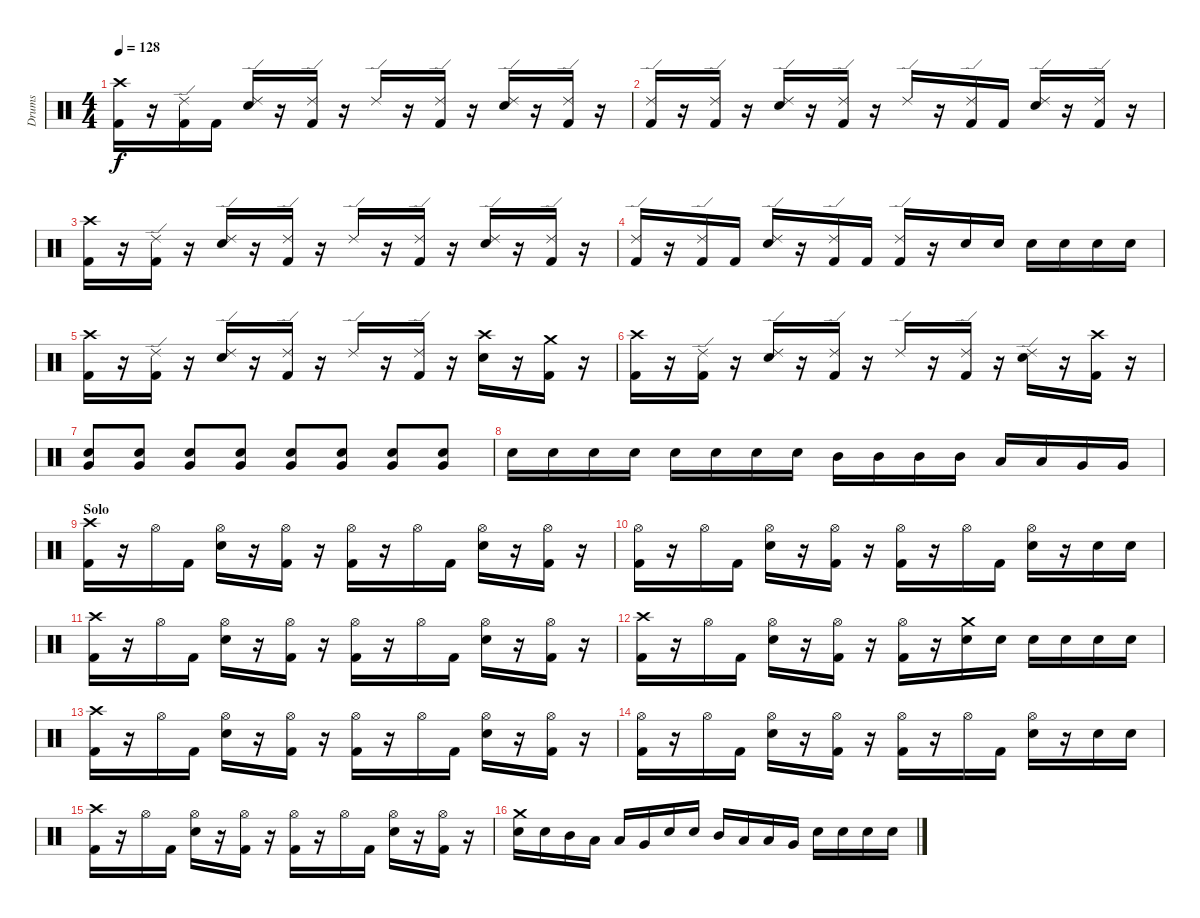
\track ("Drums" "Drums") {instrument percussion}
\staff {score}
\articulation defaults
\ts (4 4)
\tempo 128
\clef neutral
\ks c
("Crash high (hit)" "Kick (hit) 2").16{dy f} r.16 ("Ride (edge) 2" "Kick (hit) 2").16 "Kick (hit) 2".16 ("Ride (edge) 2" "Snare (hit) 2").16 r.16 ("Ride (edge) 2" "Kick (hit) 2").16 r.16 "Ride (edge) 2".16 r.16 ("Ride (edge) 2" "Kick (hit) 2").16 r.16 ("Ride (edge) 2" "Snare (hit) 2").16 r.16 ("Ride (edge) 2" "Kick (hit) 2").16 r.16 |
("Ride (edge) 2" "Kick (hit) 2").16 r.16 ("Ride (edge) 2" "Kick (hit) 2").16 r.16 ("Ride (edge) 2" "Snare (hit) 2").16 r.16 ("Ride (edge) 2" "Kick (hit) 2").16 r.16 "Ride (edge) 2".16 r.16 ("Ride (edge) 2" "Kick (hit) 2").16 "Kick (hit) 2".16 ("Ride (edge) 2" "Snare (hit) 2").16 r.16 ("Ride (edge) 2" "Kick (hit) 2").16 r.16 |
("Crash high (hit)" "Kick (hit) 2").16 r.16 ("Ride (edge) 2" "Kick (hit) 2").16 r.16 ("Ride (edge) 2" "Snare (hit) 2").16 r.16 ("Ride (edge) 2" "Kick (hit) 2").16 r.16 "Ride (edge) 2".16 r.16 ("Ride (edge) 2" "Kick (hit) 2").16 r.16 ("Ride (edge) 2" "Snare (hit) 2").16 r.16 ("Ride (edge) 2" "Kick (hit) 2").16 r.16 |
("Ride (edge) 2" "Kick (hit) 2").16 r.16 ("Ride (edge) 2" "Kick (hit) 2").16 "Kick (hit) 2".16 ("Ride (edge) 2" "Snare (hit) 2").16 r.16 ("Ride (edge) 2" "Kick (hit) 2").16 "Kick (hit) 2".16 ("Ride (edge) 2" "Kick (hit) 2").16 r.16 "Snare (hit) 2".16 "Snare (hit) 2".16 "Snare (hit) 2".16 "Snare (hit) 2".16 "Snare (hit) 2".16 "Snare (hit) 2".16 |
("Crash high (hit)" "Kick (hit) 2").16 r.16 ("Ride (edge) 2" "Kick (hit) 2").16 r.16 ("Ride (edge) 2" "Snare (hit) 2").16 r.16 ("Ride (edge) 2" "Kick (hit) 2").16 r.16 "Ride (edge) 2".16 r.16 ("Ride (edge) 2" "Kick (hit) 2").16 r.16 ("Crash high (hit)" "Snare (hit) 2").16 r.16 ("Crash medium (hit)" "Kick (hit) 2").16 r.16 |
("Crash high (hit)" "Kick (hit) 2").16 r.16 ("Ride (edge) 2" "Kick (hit) 2").16 r.16 ("Ride (edge) 2" "Snare (hit) 2").16 r.16 ("Ride (edge) 2" "Kick (hit) 2").16 r.16 "Ride (edge) 2".16 r.16 ("Ride (edge) 2" "Kick (hit) 2").16 r.16 ("Ride (edge) 2" "Snare (hit) 2").16 r.16 ("Crash high (hit)" "Kick (hit) 2").16 r.16 |
("Snare (hit) 2" "Very Low Tom (hit)").8 ("Snare (hit) 2" "Very Low Tom (hit)").8 ("Snare (hit) 2" "Very Low Tom (hit)").8 ("Snare (hit) 2" "Very Low Tom (hit)").8 ("Snare (hit) 2" "Very Low Tom (hit)").8 ("Snare (hit) 2" "Very Low Tom (hit)").8 ("Snare (hit) 2" "Very Low Tom (hit)").8 ("Snare (hit) 2" "Very Low Tom (hit)").8 |
"Snare (hit) 2".16 "Snare (hit) 2".16 "Snare (hit) 2".16 "Snare (hit) 2".16 "Snare (hit) 2".16 "Snare (hit) 2".16 "Snare (hit) 2".16 "Snare (hit) 2".16 "Mid Tom (hit)".16 "Mid Tom (hit)".16 "Mid Tom (hit)".16 "Mid Tom (hit)".16 "Low Tom (hit)".16 "Low Tom (hit)".16 "Very Low Tom (hit)".16 "Very Low Tom (hit)".16 |
\section ("" "Solo")
("Crash high (hit)" "Kick (hit) 2").16 r.16 "Hi-Hat (open)".16 "Kick (hit) 2".16 ("Hi-Hat (open)" "Snare (hit) 2").16 r.16 ("Hi-Hat (open)" "Kick (hit) 2").16 r.16 ("Hi-Hat (open)" "Kick (hit) 2").16 r.16 "Hi-Hat (open)".16 "Kick (hit) 2".16 ("Hi-Hat (open)" "Snare (hit) 2").16 r.16 ("Hi-Hat (open)" "Kick (hit) 2").16 r.16 |
("Hi-Hat (open)" "Kick (hit) 2").16 r.16 "Hi-Hat (open)".16 "Kick (hit) 2".16 ("Hi-Hat (open)" "Snare (hit) 2").16 r.16 ("Hi-Hat (open)" "Kick (hit) 2").16 r.16 ("Hi-Hat (open)" "Kick (hit) 2").16 r.16 "Hi-Hat (open)".16 "Kick (hit) 2".16 ("Hi-Hat (open)" "Snare (hit) 2").16 r.16 "Snare (hit) 2".16 "Snare (hit) 2".16 |
("Crash high (hit)" "Kick (hit) 2").16 r.16 "Hi-Hat (open)".16 "Kick (hit) 2".16 ("Hi-Hat (open)" "Snare (hit) 2").16 r.16 ("Hi-Hat (open)" "Kick (hit) 2").16 r.16 ("Hi-Hat (open)" "Kick (hit) 2").16 r.16 "Hi-Hat (open)".16 "Kick (hit) 2".16 ("Hi-Hat (open)" "Snare (hit) 2").16 r.16 ("Hi-Hat (open)" "Kick (hit) 2").16 r.16 |
("Crash high (hit)" "Kick (hit) 2").16 r.16 "Hi-Hat (open)".16 "Kick (hit) 2".16 ("Hi-Hat (open)" "Snare (hit) 2").16 r.16 ("Hi-Hat (open)" "Kick (hit) 2").16 r.16 ("Hi-Hat (open)" "Kick (hit) 2").16 r.16 ("Crash medium (hit)" "Snare (hit) 2").16 "Snare (hit) 2".16 "Snare (hit) 2".16 "Snare (hit) 2".16 "Snare (hit) 2".16 "Snare (hit) 2".16 |
("Crash high (hit)" "Kick (hit) 2").16 r.16 "Hi-Hat (open)".16 "Kick (hit) 2".16 ("Hi-Hat (open)" "Snare (hit) 2").16 r.16 ("Hi-Hat (open)" "Kick (hit) 2").16 r.16 ("Hi-Hat (open)" "Kick (hit) 2").16 r.16 "Hi-Hat (open)".16 "Kick (hit) 2".16 ("Hi-Hat (open)" "Snare (hit) 2").16 r.16 ("Hi-Hat (open)" "Kick (hit) 2").16 r.16 |
("Hi-Hat (open)" "Kick (hit) 2").16 r.16 "Hi-Hat (open)".16 "Kick (hit) 2".16 ("Hi-Hat (open)" "Snare (hit) 2").16 r.16 ("Hi-Hat (open)" "Kick (hit) 2").16 r.16 ("Hi-Hat (open)" "Kick (hit) 2").16 r.16 "Hi-Hat (open)".16 "Kick (hit) 2".16 ("Hi-Hat (open)" "Snare (hit) 2").16 r.16 "Snare (hit) 2".16 "Snare (hit) 2".16 |
("Crash high (hit)" "Kick (hit) 2").16 r.16 "Hi-Hat (open)".16 "Kick (hit) 2".16 ("Hi-Hat (open)" "Snare (hit) 2").16 r.16 ("Hi-Hat (open)" "Kick (hit) 2").16 r.16 ("Hi-Hat (open)" "Kick (hit) 2").16 r.16 "Hi-Hat (open)".16 "Kick (hit) 2".16 ("Hi-Hat (open)" "Snare (hit) 2").16 r.16 ("Hi-Hat (open)" "Kick (hit) 2").16 r.16 |
("Crash medium (hit)" "Snare (hit) 2").16 "Snare (hit) 2".16 "Mid Tom (hit)".16 "Low Tom (hit)".16 "Low Tom (hit)".16 "Very Low Tom (hit)".16 "Snare (hit) 2".16 "Snare (hit) 2".16 "Mid Tom (hit)".16 "Low Tom (hit)".16 "Low Tom (hit)".16 "Very Low Tom (hit)".16 "Snare (hit) 2".16 "Snare (hit) 2".16 "Snare (hit) 2".16 "Snare (hit) 2".16
